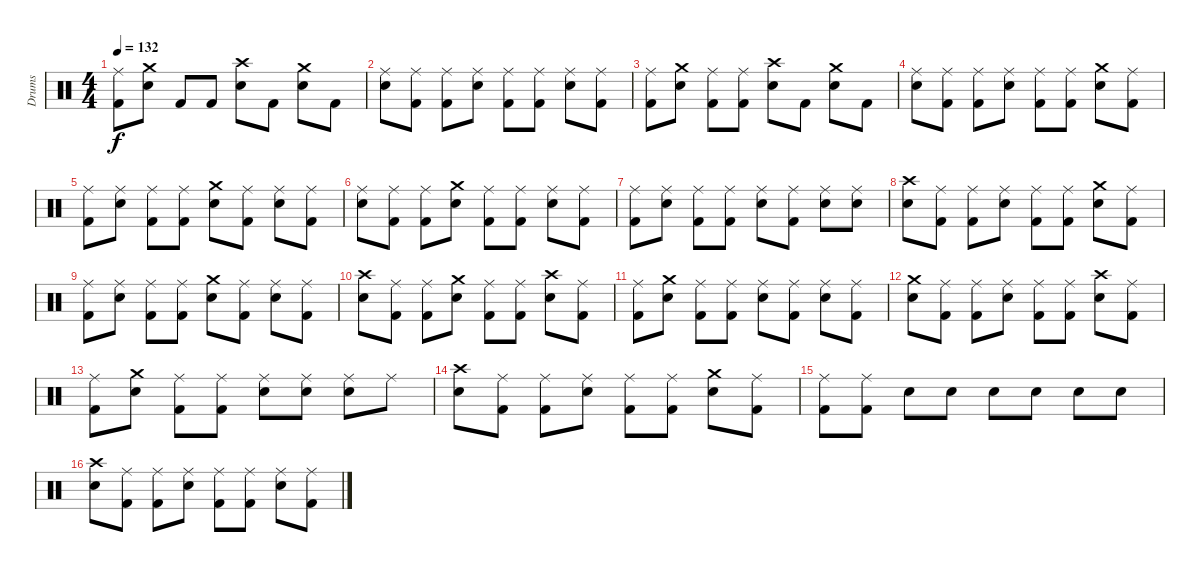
\track ("Drums" "Drums") {instrument percussion}
\staff {score}
\articulation defaults
\ts (4 4)
\tempo 132
\clef neutral
\ks c
("Ride (middle)" "Kick (hit) 2").8{dy f} ("Crash medium (hit)" "Snare (hit) 2").8 "Kick (hit) 2".8 "Kick (hit) 2".8 ("Crash high (hit)" "Snare (hit) 2").8 "Kick (hit) 2".8 ("Crash medium (hit)" "Snare (hit) 2").8 "Kick (hit) 2".8 |
("Ride (middle)" "Snare (hit) 2").8 ("Ride (middle)" "Kick (hit) 2").8 ("Ride (middle)" "Kick (hit) 2").8 ("Ride (middle)" "Snare (hit) 2").8 ("Ride (middle)" "Kick (hit) 2").8 ("Ride (middle)" "Kick (hit) 2").8 ("Ride (middle)" "Snare (hit) 2").8 ("Ride (middle)" "Kick (hit) 2").8 |
("Ride (middle)" "Kick (hit) 2").8 ("Crash medium (hit)" "Snare (hit) 2").8 ("Ride (middle)" "Kick (hit) 2").8 ("Ride (middle)" "Kick (hit) 2").8 ("Crash high (hit)" "Snare (hit) 2").8 "Kick (hit) 2".8 ("Crash medium (hit)" "Snare (hit) 2").8 "Kick (hit) 2".8 |
("Ride (middle)" "Snare (hit) 2").8 ("Ride (middle)" "Kick (hit) 2").8 ("Ride (middle)" "Kick (hit) 2").8 ("Ride (middle)" "Snare (hit) 2").8 ("Ride (middle)" "Kick (hit) 2").8 ("Ride (middle)" "Kick (hit) 2").8 ("Crash medium (hit)" "Snare (hit) 2").8 ("Ride (middle)" "Kick (hit) 2").8 |
("Ride (middle)" "Kick (hit) 2").8 ("Ride (middle)" "Snare (hit) 2").8 ("Ride (middle)" "Kick (hit) 2").8 ("Ride (middle)" "Kick (hit) 2").8 ("Crash medium (hit)" "Snare (hit) 2").8 ("Ride (middle)" "Kick (hit) 2").8 ("Ride (middle)" "Snare (hit) 2").8 ("Ride (middle)" "Kick (hit) 2").8 |
("Ride (middle)" "Snare (hit) 2").8 ("Ride (middle)" "Kick (hit) 2").8 ("Ride (middle)" "Kick (hit) 2").8 ("Crash medium (hit)" "Snare (hit) 2").8 ("Ride (middle)" "Kick (hit) 2").8 ("Ride (middle)" "Kick (hit) 2").8 ("Ride (middle)" "Snare (hit) 2").8 ("Ride (middle)" "Kick (hit) 2").8 |
("Ride (middle)" "Kick (hit) 2").8 ("Ride (middle)" "Snare (hit) 2").8 ("Ride (middle)" "Kick (hit) 2").8 ("Ride (middle)" "Kick (hit) 2").8 ("Ride (middle)" "Snare (hit) 2").8 ("Ride (middle)" "Kick (hit) 2").8 ("Ride (middle)" "Snare (hit) 2").8 ("Ride (middle)" "Snare (hit) 2").8 |
("Crash high (hit)" "Snare (hit) 2").8 ("Ride (middle)" "Kick (hit) 2").8 ("Ride (middle)" "Kick (hit) 2").8 ("Ride (middle)" "Snare (hit) 2").8 ("Ride (middle)" "Kick (hit) 2").8 ("Ride (middle)" "Kick (hit) 2").8 ("Crash medium (hit)" "Snare (hit) 2").8 ("Ride (middle)" "Kick (hit) 2").8 |
("Ride (middle)" "Kick (hit) 2").8 ("Ride (middle)" "Snare (hit) 2").8 ("Ride (middle)" "Kick (hit) 2").8 ("Ride (middle)" "Kick (hit) 2").8 ("Crash medium (hit)" "Snare (hit) 2").8 ("Ride (middle)" "Kick (hit) 2").8 ("Ride (middle)" "Snare (hit) 2").8 ("Ride (middle)" "Kick (hit) 2").8 |
("Crash high (hit)" "Snare (hit) 2").8 ("Ride (middle)" "Kick (hit) 2").8 ("Ride (middle)" "Kick (hit) 2").8 ("Crash medium (hit)" "Snare (hit) 2").8 ("Ride (middle)" "Kick (hit) 2").8 ("Ride (middle)" "Kick (hit) 2").8 ("Crash high (hit)" "Snare (hit) 2").8 ("Ride (middle)" "Kick (hit) 2").8 |
("Ride (middle)" "Kick (hit) 2").8 ("Crash medium (hit)" "Snare (hit) 2").8 ("Ride (middle)" "Kick (hit) 2").8 ("Ride (middle)" "Kick (hit) 2").8 ("Ride (middle)" "Snare (hit) 2").8 ("Ride (middle)" "Kick (hit) 2").8 ("Ride (middle)" "Snare (hit) 2").8 ("Ride (middle)" "Kick (hit) 2").8 |
("Crash medium (hit)" "Snare (hit) 2").8 ("Ride (middle)" "Kick (hit) 2").8 ("Ride (middle)" "Kick (hit) 2").8 ("Ride (middle)" "Snare (hit) 2").8 ("Ride (middle)" "Kick (hit) 2").8 ("Ride (middle)" "Kick (hit) 2").8 ("Crash high (hit)" "Snare (hit) 2").8 ("Ride (middle)" "Kick (hit) 2").8 |
("Ride (middle)" "Kick (hit) 2").8 ("Crash medium (hit)" "Snare (hit) 2").8 ("Ride (middle)" "Kick (hit) 2").8 ("Ride (middle)" "Kick (hit) 2").8 ("Ride (middle)" "Snare (hit) 2").8 ("Ride (middle)" "Snare (hit) 2").8 ("Ride (middle)" "Snare (hit) 2").8 "Ride (middle)".8 |
("Crash high (hit)" "Snare (hit) 2").8 ("Ride (middle)" "Kick (hit) 2").8 ("Ride (middle)" "Kick (hit) 2").8 ("Ride (middle)" "Snare (hit) 2").8 ("Ride (middle)" "Kick (hit) 2").8 ("Ride (middle)" "Kick (hit) 2").8 ("Crash medium (hit)" "Snare (hit) 2").8 ("Ride (middle)" "Kick (hit) 2").8 |
("Ride (middle)" "Kick (hit) 2").8 ("Ride (middle)" "Kick (hit) 2").8 "Snare (hit) 2".8 "Snare (hit) 2".8 "Snare (hit) 2".8 "Snare (hit) 2".8 "Snare (hit) 2".8 "Snare (hit) 2".8 |
("Crash high (hit)" "Snare (hit) 2").8 ("Ride (middle)" "Kick (hit) 2").8 ("Ride (middle)" "Kick (hit) 2").8 ("Ride (middle)" "Snare (hit) 2").8 ("Ride (middle)" "Kick (hit) 2").8 ("Ride (middle)" "Kick (hit) 2").8 ("Ride (middle)" "Snare (hit) 2").8 ("Ride (middle)" "Kick (hit) 2").8
